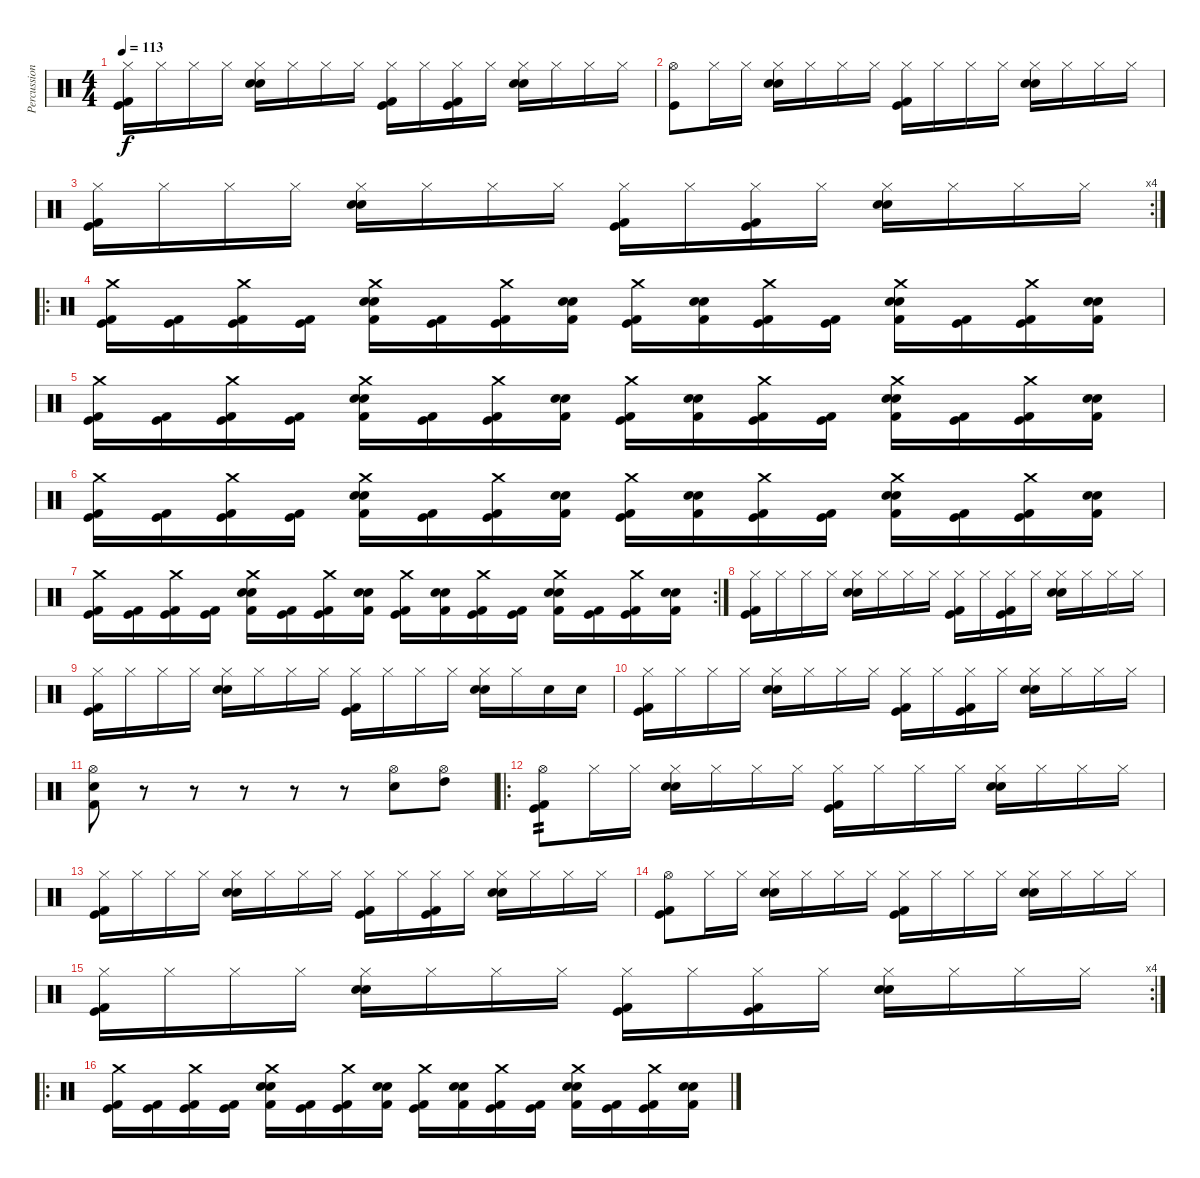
\track ("Percussion" "Percussion") {instrument percussion}
\staff {score}
\articulation defaults
\ts (4 4)
\tempo 113
\clef neutral
\ks c
("Kick (hit)" "Kick (hit) 2" "Hi-Hat (closed)").16{dy f} "Hi-Hat (closed)".16 "Hi-Hat (closed)".16 "Hi-Hat (closed)".16 ("Snare (hit) 2" "Electric Snare (hit)" "Hi-Hat (closed)").16 "Hi-Hat (closed)".16 "Hi-Hat (closed)".16 "Hi-Hat (closed)".16 ("Kick (hit)" "Kick (hit) 2" "Hi-Hat (closed)").16 "Hi-Hat (closed)".16 ("Kick (hit)" "Kick (hit) 2" "Hi-Hat (closed)").16 "Hi-Hat (closed)".16 ("Snare (hit) 2" "Electric Snare (hit)" "Hi-Hat (closed)").16 "Hi-Hat (closed)".16 "Hi-Hat (closed)".16 "Hi-Hat (closed)".16 |
("Kick (hit)" "Hi-Hat (open)").8 "Hi-Hat (closed)".16 "Hi-Hat (closed)".16 ("Snare (hit) 2" "Electric Snare (hit)" "Hi-Hat (closed)").16 "Hi-Hat (closed)".16 "Hi-Hat (closed)".16 "Hi-Hat (closed)".16 ("Kick (hit)" "Kick (hit) 2" "Hi-Hat (closed)").16 "Hi-Hat (closed)".16 "Hi-Hat (closed)".16 "Hi-Hat (closed)".16 ("Snare (hit) 2" "Electric Snare (hit)" "Hi-Hat (closed)").16 "Hi-Hat (closed)".16 "Hi-Hat (closed)".16 "Hi-Hat (closed)".16 |
\rc 4
("Kick (hit)" "Kick (hit) 2" "Hi-Hat (closed)").16 "Hi-Hat (closed)".16 "Hi-Hat (closed)".16 "Hi-Hat (closed)".16 ("Snare (hit) 2" "Electric Snare (hit)" "Hi-Hat (closed)").16 "Hi-Hat (closed)".16 "Hi-Hat (closed)".16 "Hi-Hat (closed)".16 ("Kick (hit)" "Kick (hit) 2" "Hi-Hat (closed)").16 "Hi-Hat (closed)".16 ("Kick (hit)" "Kick (hit) 2" "Hi-Hat (closed)").16 "Hi-Hat (closed)".16 ("Snare (hit) 2" "Electric Snare (hit)" "Hi-Hat (closed)").16 "Hi-Hat (closed)".16 "Hi-Hat (closed)".16 "Hi-Hat (closed)".16 |
\ro
("Kick (hit)" "Kick (hit) 2" "Crash medium (hit)").16 ("Kick (hit)" "Kick (hit) 2").16 ("Kick (hit)" "Kick (hit) 2" "Crash medium (hit)").16 ("Kick (hit)" "Kick (hit) 2").16 ("Snare (hit) 2" "Kick (hit) 2" "Electric Snare (hit)" "Crash medium (hit)").16 ("Kick (hit)" "Kick (hit) 2").16 ("Kick (hit)" "Kick (hit) 2" "Crash medium (hit)").16 ("Snare (hit) 2" "Kick (hit) 2" "Electric Snare (hit)").16 ("Kick (hit)" "Kick (hit) 2" "Crash medium (hit)").16 ("Snare (hit) 2" "Kick (hit) 2" "Electric Snare (hit)").16 ("Kick (hit)" "Kick (hit) 2" "Crash medium (hit)").16 ("Kick (hit)" "Kick (hit) 2").16 ("Snare (hit) 2" "Kick (hit) 2" "Electric Snare (hit)" "Crash medium (hit)").16 ("Kick (hit)" "Kick (hit) 2").16 ("Kick (hit)" "Kick (hit) 2" "Crash medium (hit)").16 ("Snare (hit) 2" "Kick (hit) 2" "Electric Snare (hit)").16 |
("Kick (hit)" "Kick (hit) 2" "Crash medium (hit)").16 ("Kick (hit)" "Kick (hit) 2").16 ("Kick (hit)" "Kick (hit) 2" "Crash medium (hit)").16 ("Kick (hit)" "Kick (hit) 2").16 ("Snare (hit) 2" "Kick (hit) 2" "Electric Snare (hit)" "Crash medium (hit)").16 ("Kick (hit)" "Kick (hit) 2").16 ("Kick (hit)" "Kick (hit) 2" "Crash medium (hit)").16 ("Snare (hit) 2" "Kick (hit) 2" "Electric Snare (hit)").16 ("Kick (hit)" "Kick (hit) 2" "Crash medium (hit)").16 ("Snare (hit) 2" "Kick (hit) 2" "Electric Snare (hit)").16 ("Kick (hit)" "Kick (hit) 2" "Crash medium (hit)").16 ("Kick (hit)" "Kick (hit) 2").16 ("Snare (hit) 2" "Kick (hit) 2" "Electric Snare (hit)" "Crash medium (hit)").16 ("Kick (hit)" "Kick (hit) 2").16 ("Kick (hit)" "Kick (hit) 2" "Crash medium (hit)").16 ("Snare (hit) 2" "Kick (hit) 2" "Electric Snare (hit)").16 |
("Kick (hit)" "Kick (hit) 2" "Crash medium (hit)").16 ("Kick (hit)" "Kick (hit) 2").16 ("Kick (hit)" "Kick (hit) 2" "Crash medium (hit)").16 ("Kick (hit)" "Kick (hit) 2").16 ("Snare (hit) 2" "Kick (hit) 2" "Electric Snare (hit)" "Crash medium (hit)").16 ("Kick (hit)" "Kick (hit) 2").16 ("Kick (hit)" "Kick (hit) 2" "Crash medium (hit)").16 ("Snare (hit) 2" "Kick (hit) 2" "Electric Snare (hit)").16 ("Kick (hit)" "Kick (hit) 2" "Crash medium (hit)").16 ("Snare (hit) 2" "Kick (hit) 2" "Electric Snare (hit)").16 ("Kick (hit)" "Kick (hit) 2" "Crash medium (hit)").16 ("Kick (hit)" "Kick (hit) 2").16 ("Snare (hit) 2" "Kick (hit) 2" "Electric Snare (hit)" "Crash medium (hit)").16 ("Kick (hit)" "Kick (hit) 2").16 ("Kick (hit)" "Kick (hit) 2" "Crash medium (hit)").16 ("Snare (hit) 2" "Kick (hit) 2" "Electric Snare (hit)").16 |
\rc 2
("Kick (hit)" "Kick (hit) 2" "Crash medium (hit)").16 ("Kick (hit)" "Kick (hit) 2").16 ("Kick (hit)" "Kick (hit) 2" "Crash medium (hit)").16 ("Kick (hit)" "Kick (hit) 2").16 ("Snare (hit) 2" "Kick (hit) 2" "Electric Snare (hit)" "Crash medium (hit)").16 ("Kick (hit)" "Kick (hit) 2").16 ("Kick (hit)" "Kick (hit) 2" "Crash medium (hit)").16 ("Snare (hit) 2" "Kick (hit) 2" "Electric Snare (hit)").16 ("Kick (hit)" "Kick (hit) 2" "Crash medium (hit)").16 ("Snare (hit) 2" "Kick (hit) 2" "Electric Snare (hit)").16 ("Kick (hit)" "Kick (hit) 2" "Crash medium (hit)").16 ("Kick (hit)" "Kick (hit) 2").16 ("Snare (hit) 2" "Kick (hit) 2" "Electric Snare (hit)" "Crash medium (hit)").16 ("Kick (hit)" "Kick (hit) 2").16 ("Kick (hit)" "Kick (hit) 2" "Crash medium (hit)").16 ("Snare (hit) 2" "Kick (hit) 2" "Electric Snare (hit)").16 |
("Kick (hit)" "Kick (hit) 2" "Hi-Hat (closed)").16 "Hi-Hat (closed)".16 "Hi-Hat (closed)".16 "Hi-Hat (closed)".16 ("Snare (hit) 2" "Electric Snare (hit)" "Hi-Hat (closed)").16 "Hi-Hat (closed)".16 "Hi-Hat (closed)".16 "Hi-Hat (closed)".16 ("Kick (hit)" "Kick (hit) 2" "Hi-Hat (closed)").16 "Hi-Hat (closed)".16 ("Kick (hit)" "Kick (hit) 2" "Hi-Hat (closed)").16 "Hi-Hat (closed)".16 ("Snare (hit) 2" "Electric Snare (hit)" "Hi-Hat (closed)").16 "Hi-Hat (closed)".16 "Hi-Hat (closed)".16 "Hi-Hat (closed)".16 |
("Kick (hit)" "Kick (hit) 2" "Hi-Hat (closed)").16 "Hi-Hat (closed)".16 "Hi-Hat (closed)".16 "Hi-Hat (closed)".16 ("Snare (hit) 2" "Electric Snare (hit)" "Hi-Hat (closed)").16 "Hi-Hat (closed)".16 "Hi-Hat (closed)".16 "Hi-Hat (closed)".16 ("Kick (hit)" "Kick (hit) 2" "Hi-Hat (closed)").16 "Hi-Hat (closed)".16 "Hi-Hat (closed)".16 "Hi-Hat (closed)".16 ("Snare (hit) 2" "Electric Snare (hit)" "Hi-Hat (closed)").16 "Hi-Hat (closed)".16 "Electric Snare (hit)".16 "Electric Snare (hit)".16 |
("Kick (hit)" "Kick (hit) 2" "Hi-Hat (closed)").16 "Hi-Hat (closed)".16 "Hi-Hat (closed)".16 "Hi-Hat (closed)".16 ("Snare (hit) 2" "Electric Snare (hit)" "Hi-Hat (closed)").16 "Hi-Hat (closed)".16 "Hi-Hat (closed)".16 "Hi-Hat (closed)".16 ("Kick (hit)" "Kick (hit) 2" "Hi-Hat (closed)").16 "Hi-Hat (closed)".16 ("Kick (hit)" "Kick (hit) 2" "Hi-Hat (closed)").16 "Hi-Hat (closed)".16 ("Snare (hit) 2" "Electric Snare (hit)" "Hi-Hat (closed)").16 "Hi-Hat (closed)".16 "Hi-Hat (closed)".16 "Hi-Hat (closed)".16 |
("Hi-Hat (open)" "Kick (hit) 2" "Electric Snare (hit)").8 r.8 r.8 r.8 r.8 r.8 ("Hi-Hat (open)" "Electric Snare (hit)").8 ("High Tom (hit)" "Hi-Hat (open)").8 |
\ro
("Kick (hit)" "Kick (hit) 2" "Hi-Hat (open)").8{tp 2} "Hi-Hat (closed)".16 "Hi-Hat (closed)".16 ("Snare (hit) 2" "Electric Snare (hit)" "Hi-Hat (closed)").16 "Hi-Hat (closed)".16 "Hi-Hat (closed)".16 "Hi-Hat (closed)".16 ("Kick (hit)" "Kick (hit) 2" "Hi-Hat (closed)").16 "Hi-Hat (closed)".16 "Hi-Hat (closed)".16 "Hi-Hat (closed)".16 ("Snare (hit) 2" "Electric Snare (hit)" "Hi-Hat (closed)").16 "Hi-Hat (closed)".16 "Hi-Hat (closed)".16 "Hi-Hat (closed)".16 |
("Kick (hit)" "Kick (hit) 2" "Hi-Hat (closed)").16 "Hi-Hat (closed)".16 "Hi-Hat (closed)".16 "Hi-Hat (closed)".16 ("Snare (hit) 2" "Electric Snare (hit)" "Hi-Hat (closed)").16 "Hi-Hat (closed)".16 "Hi-Hat (closed)".16 "Hi-Hat (closed)".16 ("Kick (hit)" "Kick (hit) 2" "Hi-Hat (closed)").16 "Hi-Hat (closed)".16 ("Kick (hit)" "Kick (hit) 2" "Hi-Hat (closed)").16 "Hi-Hat (closed)".16 ("Snare (hit) 2" "Electric Snare (hit)" "Hi-Hat (closed)").16 "Hi-Hat (closed)".16 "Hi-Hat (closed)".16 "Hi-Hat (closed)".16 |
("Kick (hit)" "Kick (hit) 2" "Hi-Hat (open)").8 "Hi-Hat (closed)".16 "Hi-Hat (closed)".16 ("Snare (hit) 2" "Electric Snare (hit)" "Hi-Hat (closed)").16 "Hi-Hat (closed)".16 "Hi-Hat (closed)".16 "Hi-Hat (closed)".16 ("Kick (hit)" "Kick (hit) 2" "Hi-Hat (closed)").16 "Hi-Hat (closed)".16 "Hi-Hat (closed)".16 "Hi-Hat (closed)".16 ("Snare (hit) 2" "Electric Snare (hit)" "Hi-Hat (closed)").16 "Hi-Hat (closed)".16 "Hi-Hat (closed)".16 "Hi-Hat (closed)".16 |
\rc 4
("Kick (hit)" "Kick (hit) 2" "Hi-Hat (closed)").16 "Hi-Hat (closed)".16 "Hi-Hat (closed)".16 "Hi-Hat (closed)".16 ("Snare (hit) 2" "Electric Snare (hit)" "Hi-Hat (closed)").16 "Hi-Hat (closed)".16 "Hi-Hat (closed)".16 "Hi-Hat (closed)".16 ("Kick (hit)" "Kick (hit) 2" "Hi-Hat (closed)").16 "Hi-Hat (closed)".16 ("Kick (hit)" "Kick (hit) 2" "Hi-Hat (closed)").16 "Hi-Hat (closed)".16 ("Snare (hit) 2" "Electric Snare (hit)" "Hi-Hat (closed)").16 "Hi-Hat (closed)".16 "Hi-Hat (closed)".16 "Hi-Hat (closed)".16 |
\ro
("Kick (hit)" "Kick (hit) 2" "Crash medium (hit)").16 ("Kick (hit)" "Kick (hit) 2").16 ("Kick (hit)" "Kick (hit) 2" "Crash medium (hit)").16 ("Kick (hit)" "Kick (hit) 2").16 ("Snare (hit) 2" "Kick (hit) 2" "Electric Snare (hit)" "Crash medium (hit)").16 ("Kick (hit)" "Kick (hit) 2").16 ("Kick (hit)" "Kick (hit) 2" "Crash medium (hit)").16 ("Snare (hit) 2" "Kick (hit) 2" "Electric Snare (hit)").16 ("Kick (hit)" "Kick (hit) 2" "Crash medium (hit)").16 ("Snare (hit) 2" "Kick (hit) 2" "Electric Snare (hit)").16 ("Kick (hit)" "Kick (hit) 2" "Crash medium (hit)").16 ("Kick (hit)" "Kick (hit) 2").16 ("Snare (hit) 2" "Kick (hit) 2" "Electric Snare (hit)" "Crash medium (hit)").16 ("Kick (hit)" "Kick (hit) 2").16 ("Kick (hit)" "Kick (hit) 2" "Crash medium (hit)").16 ("Snare (hit) 2" "Kick (hit) 2" "Electric Snare (hit)").16
